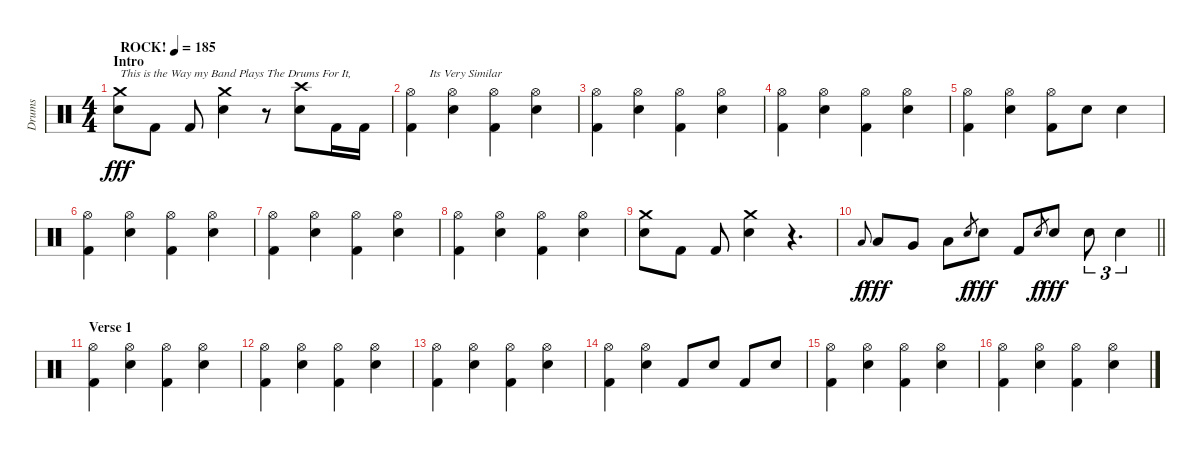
\track ("Drums" "Drums") {instrument percussion}
\staff {score}
\articulation defaults
\ts (4 4)
\section ("" "Intro")
\tempo (185 "ROCK!")
\clef neutral
\ks c
("Crash medium (hit)" "Electric Snare (hit)").8{txt "This is the Way my Band Plays The Drums For It," dy fff} "Kick (hit) 2".8 "Kick (hit) 2".8 ("Crash medium (hit)" "Electric Snare (hit)").4 r.8 ("Crash high (hit)" "Electric Snare (hit)").8 "Kick (hit) 2".16 "Kick (hit) 2".16 |
("Hi-Hat (open)" "Kick (hit) 2").4{txt "      Its Very Similar"} ("Hi-Hat (open)" "Electric Snare (hit)").4 ("Hi-Hat (open)" "Kick (hit) 2").4 ("Hi-Hat (open)" "Electric Snare (hit)").4 |
("Hi-Hat (open)" "Kick (hit) 2").4 ("Hi-Hat (open)" "Electric Snare (hit)").4 ("Hi-Hat (open)" "Kick (hit) 2").4 ("Hi-Hat (open)" "Electric Snare (hit)").4 |
("Hi-Hat (open)" "Kick (hit) 2").4 ("Hi-Hat (open)" "Electric Snare (hit)").4 ("Hi-Hat (open)" "Kick (hit) 2").4 ("Hi-Hat (open)" "Electric Snare (hit)").4 |
("Hi-Hat (open)" "Kick (hit) 2").4 ("Hi-Hat (open)" "Electric Snare (hit)").4 ("Hi-Hat (open)" "Kick (hit) 2").8 "Electric Snare (hit)".8 "Electric Snare (hit)".4 |
("Hi-Hat (open)" "Kick (hit) 2").4 ("Hi-Hat (open)" "Electric Snare (hit)").4 ("Hi-Hat (open)" "Kick (hit) 2").4 ("Hi-Hat (open)" "Electric Snare (hit)").4 |
("Hi-Hat (open)" "Kick (hit) 2").4 ("Hi-Hat (open)" "Electric Snare (hit)").4 ("Hi-Hat (open)" "Kick (hit) 2").4 ("Hi-Hat (open)" "Electric Snare (hit)").4 |
("Hi-Hat (open)" "Kick (hit) 2").4 ("Hi-Hat (open)" "Electric Snare (hit)").4 ("Hi-Hat (open)" "Kick (hit) 2").4 ("Hi-Hat (open)" "Electric Snare (hit)").4 |
("Crash medium (hit)" "Electric Snare (hit)").8 "Kick (hit) 2".8 "Kick (hit) 2".8 ("Crash medium (hit)" "Electric Snare (hit)").4 r.4{d} |
\barLineRight lightlight "Low Tom (hit)".8{gr onbeat dy f} "Low Tom (hit)".8{dy fff} "Very Low Tom (hit)".8 "Low Floor Tom (hit)".8 "Electric Snare (hit)".8{gr dy f} "Electric Snare (hit)".8{dy fff} "Kick (hit) 2".8 "Electric Snare (hit)".8{gr dy f} "Electric Snare (hit)".8{dy fff} "Electric Snare (hit)".8{tu (3 2)} "Electric Snare (hit)".4{tu (3 2)}
|
\section ("" "Verse 1")
("Hi-Hat (open)" "Kick (hit) 2").4 ("Hi-Hat (open)" "Electric Snare (hit)").4 ("Hi-Hat (open)" "Kick (hit) 2").4 ("Hi-Hat (open)" "Electric Snare (hit)").4 |
("Hi-Hat (open)" "Kick (hit) 2").4 ("Hi-Hat (open)" "Electric Snare (hit)").4 ("Hi-Hat (open)" "Kick (hit) 2").4 ("Hi-Hat (open)" "Electric Snare (hit)").4 |
("Hi-Hat (open)" "Kick (hit) 2").4 ("Hi-Hat (open)" "Electric Snare (hit)").4 ("Hi-Hat (open)" "Kick (hit) 2").4 ("Hi-Hat (open)" "Electric Snare (hit)").4 |
("Hi-Hat (open)" "Kick (hit) 2").4 ("Hi-Hat (open)" "Electric Snare (hit)").4 "Kick (hit) 2".8 "Electric Snare (hit)".8 "Kick (hit) 2".8 "Electric Snare (hit)".8 |
("Hi-Hat (open)" "Kick (hit) 2").4 ("Hi-Hat (open)" "Electric Snare (hit)").4 ("Hi-Hat (open)" "Kick (hit) 2").4 ("Hi-Hat (open)" "Electric Snare (hit)").4 |
("Hi-Hat (open)" "Kick (hit) 2").4 ("Hi-Hat (open)" "Electric Snare (hit)").4 ("Hi-Hat (open)" "Kick (hit) 2").4 ("Hi-Hat (open)" "Electric Snare (hit)").4
